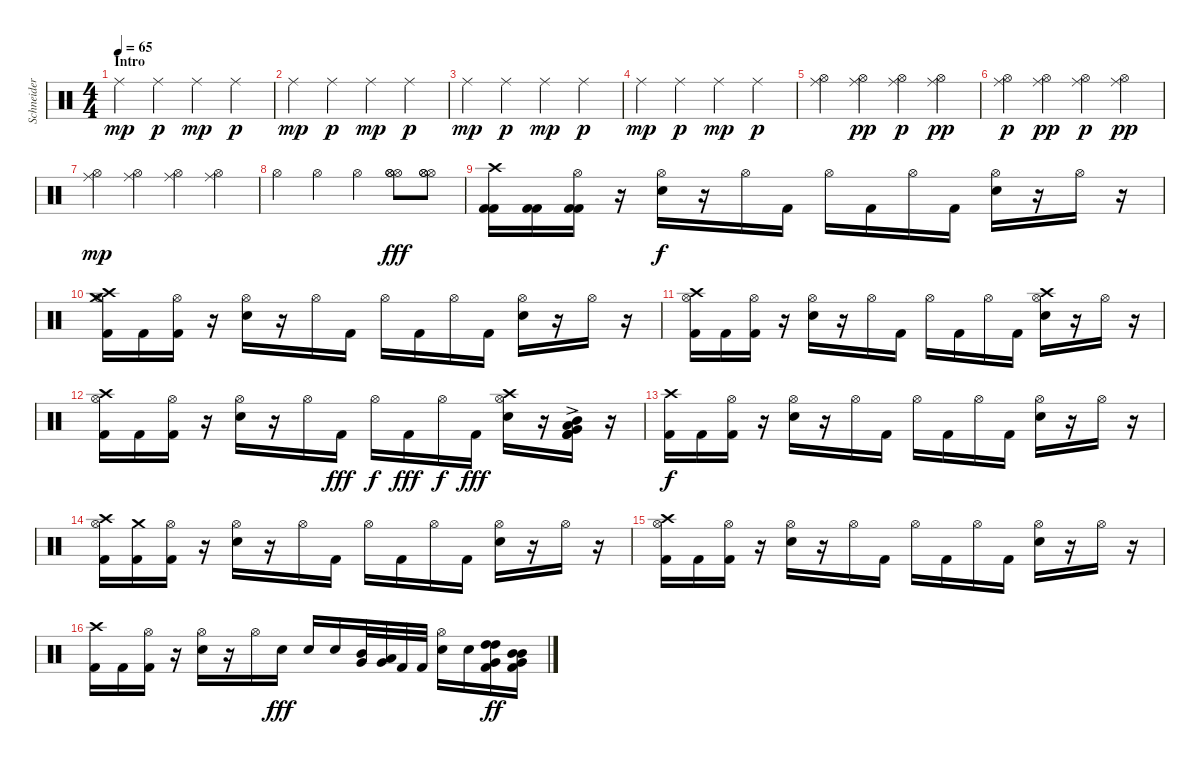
\track ("Schneider" "Schneider") {instrument percussion}
\staff {score}
\articulation defaults
\ts (4 4)
\section ("" "Intro")
\tempo 65
\clef neutral
\ks c "Ride (middle)".4{dy mp} "Ride (middle)".4{dy p} "Ride (middle)".4{dy mp} "Ride (middle)".4{dy p}
|
"Ride (middle)".4{dy mp} "Ride (middle)".4{dy p} "Ride (middle)".4{dy mp} "Ride (middle)".4{dy p} |
"Ride (middle)".4{dy mp} "Ride (middle)".4{dy p} "Ride (middle)".4{dy mp} "Ride (middle)".4{dy p} |
"Ride (middle)".4{dy mp} "Ride (middle)".4{dy p} "Ride (middle)".4{dy mp} "Ride (middle)".4{dy p} |
("Ride (middle)" "Hi-Hat (open)").4 ("Ride (middle)" "Hi-Hat (open)").4{dy pp} ("Ride (middle)" "Hi-Hat (open)").4{dy p} ("Ride (middle)" "Hi-Hat (open)").4{dy pp} |
("Ride (middle)" "Hi-Hat (open)").4{dy p} ("Ride (middle)" "Hi-Hat (open)").4{dy pp} ("Ride (middle)" "Hi-Hat (open)").4{dy p} ("Ride (middle)" "Hi-Hat (open)").4{dy pp} |
("Ride (middle)" "Hi-Hat (open)").4{dy mp} ("Ride (middle)" "Hi-Hat (open)").4 ("Ride (middle)" "Hi-Hat (open)").4 ("Ride (middle)" "Hi-Hat (open)").4 |
"Hi-Hat (open)".4 "Hi-Hat (open)".4 "Hi-Hat (open)".4 ("Hi-Hat (open)" "Hi-Hat (open)" "Hi-Hat (open)").8{dy fff} ("Hi-Hat (open)" "Hi-Hat (open)" "Hi-Hat (open)").8 |
("Kick (hit) 2" "Crash high (hit)" "Kick (hit) 2").16 ("Kick (hit) 2" "Kick (hit) 2").16 ("Kick (hit) 2" "Hi-Hat (open)" "Kick (hit) 2").16 r.16 ("Hi-Hat (open)" "Electric Snare (hit)").16{dy f} r.16 "Hi-Hat (open)".16 "Kick (hit) 2".16 "Hi-Hat (open)".16 "Kick (hit) 2".16 "Hi-Hat (open)".16 "Kick (hit) 2".16 ("Hi-Hat (open)" "Electric Snare (hit)").16 r.16 "Hi-Hat (open)".16 r.16 |
("Crash high (hit)" "Crash medium (hit)" "Hi-Hat (open)" "Kick (hit) 2").16 "Kick (hit) 2".16 ("Hi-Hat (open)" "Kick (hit) 2").16 r.16 ("Hi-Hat (open)" "Electric Snare (hit)").16 r.16 "Hi-Hat (open)".16 "Kick (hit) 2".16 "Hi-Hat (open)".16 "Kick (hit) 2".16 "Hi-Hat (open)".16 "Kick (hit) 2".16 ("Hi-Hat (open)" "Electric Snare (hit)").16 r.16 "Hi-Hat (open)".16 r.16 |
("Crash high (hit)" "Hi-Hat (open)" "Kick (hit) 2").16 "Kick (hit) 2".16 ("Hi-Hat (open)" "Kick (hit) 2").16 r.16 ("Hi-Hat (open)" "Electric Snare (hit)").16 r.16 "Hi-Hat (open)".16 "Kick (hit) 2".16 "Hi-Hat (open)".16 "Kick (hit) 2".16 "Hi-Hat (open)".16 "Kick (hit) 2".16 ("Crash high (hit)" "Hi-Hat (open)" "Electric Snare (hit)").16 r.16 "Hi-Hat (open)".16 r.16 |
("Crash high (hit)" "Hi-Hat (open)" "Kick (hit) 2").16 "Kick (hit) 2".16 ("Hi-Hat (open)" "Kick (hit) 2").16 r.16 ("Hi-Hat (open)" "Electric Snare (hit)").16 r.16 "Hi-Hat (open)".16 "Kick (hit) 2".16{dy fff} "Hi-Hat (open)".16{dy f} "Kick (hit) 2".16{dy fff} "Hi-Hat (open)".16{dy f} "Kick (hit) 2".16{dy fff} ("Crash high (hit)" "Hi-Hat (open)" "Electric Snare (hit)").16 r.16 ("Kick (hit) 2"{ac} "Kick (hit) 2"{ac} "Kick (hit) 2"{ac} "Low Tom (hit)"{ac} "Very Low Tom (hit)"{ac} "Mid Tom (hit)"{ac}).16 r.16 |
("Crash high (hit)" "Kick (hit) 2").16{dy f} "Kick (hit) 2".16 ("Hi-Hat (open)" "Kick (hit) 2").16 r.16 ("Hi-Hat (open)" "Electric Snare (hit)").16 r.16 "Hi-Hat (open)".16 "Kick (hit) 2".16 "Hi-Hat (open)".16 "Kick (hit) 2".16 "Hi-Hat (open)".16 "Kick (hit) 2".16 ("Hi-Hat (open)" "Electric Snare (hit)").16 r.16 "Hi-Hat (open)".16 r.16 |
("Crash high (hit)" "Hi-Hat (open)" "Kick (hit) 2").16 ("Crash medium (hit)" "Kick (hit) 2").16 ("Hi-Hat (open)" "Kick (hit) 2").16 r.16 ("Hi-Hat (open)" "Electric Snare (hit)").16 r.16 "Hi-Hat (open)".16 "Kick (hit) 2".16 "Hi-Hat (open)".16 "Kick (hit) 2".16 "Hi-Hat (open)".16 "Kick (hit) 2".16 ("Hi-Hat (open)" "Electric Snare (hit)").16 r.16 "Hi-Hat (open)".16 r.16 |
("Crash high (hit)" "Hi-Hat (open)" "Kick (hit) 2").16 "Kick (hit) 2".16 ("Hi-Hat (open)" "Kick (hit) 2").16 r.16 ("Hi-Hat (open)" "Electric Snare (hit)").16 r.16 "Hi-Hat (open)".16 "Kick (hit) 2".16 "Hi-Hat (open)".16 "Kick (hit) 2".16 "Hi-Hat (open)".16 "Kick (hit) 2".16 ("Hi-Hat (open)" "Electric Snare (hit)").16 r.16 "Hi-Hat (open)".16 r.16 |
("Crash high (hit)" "Kick (hit) 2").16 "Kick (hit) 2".16 ("Hi-Hat (open)" "Kick (hit) 2").16 r.16 ("Hi-Hat (open)" "Electric Snare (hit)").16 r.16 "Hi-Hat (open)".16 "Electric Snare (hit)".16{dy fff} "Electric Snare (hit)".16 "Electric Snare (hit)".16 ("Mid Tom (hit)" "Very Low Tom (hit)").32 ("Low Tom (hit)" "Very Low Tom (hit)").32 "Kick (hit) 2".32 "Kick (hit) 2".32 ("Hi-Hat (open)" "Electric Snare (hit)").16 "Electric Snare (hit)".16 ("Kick (hit) 2" "High Tom (hit)" "High Tom (hit)" "Very Low Tom (hit)").16{dy ff} ("Kick (hit) 2" "Mid Tom (hit)" "Mid Tom (hit)" "Very Low Tom (hit)").16
